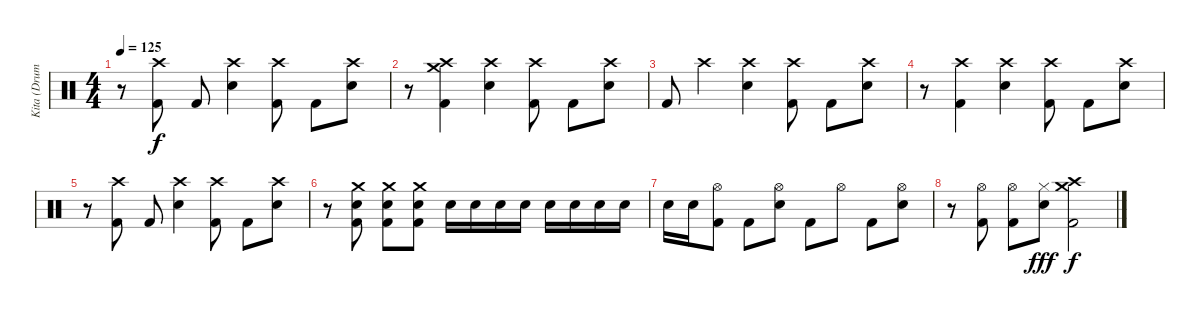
\track ("Kita (Drums)" "Kita (Drum") {instrument percussion}
\staff {score}
\articulation defaults
\ts (4 4)
\tempo 125
\clef neutral
\ks c
r.8{dy f} ("Crash high (hit)" "Kick (hit) 2").8 "Kick (hit) 2".8 ("Crash high (hit)" "Electric Snare (hit)").4 ("Crash high (hit)" "Kick (hit) 2").8 "Kick (hit) 2".8 ("Crash high (hit)" "Electric Snare (hit)").8 |
r.8 ("Crash medium (hit)" "Crash high (hit)" "Kick (hit) 2").4 ("Crash high (hit)" "Electric Snare (hit)").4 ("Crash high (hit)" "Kick (hit) 2").8 "Kick (hit) 2".8 ("Crash high (hit)" "Electric Snare (hit)").8 |
"Kick (hit) 2".8 "Crash high (hit)".4 ("Crash high (hit)" "Electric Snare (hit)").4 ("Crash high (hit)" "Kick (hit) 2").8 "Kick (hit) 2".8 ("Crash high (hit)" "Electric Snare (hit)").8 |
r.8 ("Crash high (hit)" "Kick (hit) 2").4 ("Crash high (hit)" "Electric Snare (hit)").4 ("Crash high (hit)" "Kick (hit) 2").8 "Kick (hit) 2".8 ("Crash high (hit)" "Electric Snare (hit)").8 |
r.8 ("Crash high (hit)" "Kick (hit) 2").8 "Kick (hit) 2".8 ("Crash high (hit)" "Electric Snare (hit)").4 ("Crash high (hit)" "Kick (hit) 2").8 "Kick (hit) 2".8 ("Crash high (hit)" "Electric Snare (hit)").8 |
r.8 ("Crash medium (hit)" "Electric Snare (hit)" "Kick (hit) 2").8 ("Crash medium (hit)" "Electric Snare (hit)" "Kick (hit) 2").8 ("Crash medium (hit)" "Electric Snare (hit)" "Kick (hit) 2").8 "Electric Snare (hit)".16 "Electric Snare (hit)".16 "Electric Snare (hit)".16 "Electric Snare (hit)".16 "Electric Snare (hit)".16 "Electric Snare (hit)".16 "Electric Snare (hit)".16 "Electric Snare (hit)".16 |
"Electric Snare (hit)".16 "Electric Snare (hit)".16 ("Hi-Hat (open)" "Kick (hit) 2").8 "Kick (hit) 2".8 ("Hi-Hat (open)" "Electric Snare (hit)").8 "Kick (hit) 2".8 "Hi-Hat (open)".8 "Kick (hit) 2".8 ("Hi-Hat (open)" "Electric Snare (hit)").8 |
r.8 ("Hi-Hat (open)" "Kick (hit) 2").8 ("Hi-Hat (open)" "Kick (hit) 2").8 ("Hi-Hat (closed)" "Electric Snare (hit)").8{dy fff} ("Crash medium (hit)" "Crash high (hit)" "Kick (hit) 2").2{dy f}
